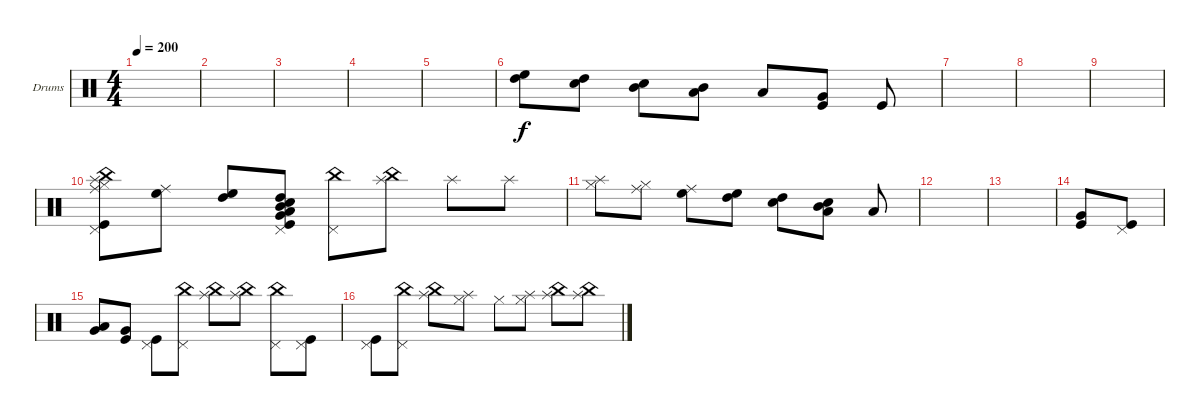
\defaultSystemsLayout 4
\bracketExtendMode groupsimilarinstruments
\firstSystemTrackNameOrientation horizontal
\otherSystemsTrackNameOrientation horizontal
\track ("Drumkit" "Drums") {instrument percussion}
\staff {score}
\articulation defaults
\ts (4 4)
\tempo 200
\clef neutral
\scale
0.333333
\ks c
|
\scale
0.333333 |
\scale
0.333333 |
\scale
0.333333 |
\scale
0.333333 |
\scale
0.333333 ("High Floor Tom (hit)" "High Tom (hit)").8 ("High Tom (hit)" "Snare (hit) 2").8 ("Snare (hit) 2" "Mid Tom (hit)").8 ("Mid Tom (hit)" "Low Tom (hit)").8 "Low Tom (hit)".8 ("Very Low Tom (hit)" "Kick (hit)").8 "Kick (hit)".8 |
\scale
0.333333 |
\scale
0.333333 |
\scale
0.333333 |
\scale
0.333333 ("Kick (hit)" "Pedal Hi-Hat (hit)" "China (hit)" "Splash (hit)" "Hi-Hat (closed)" "Ride (middle)").8 ("Ride (middle)" "High Floor Tom (hit)").8 ("High Floor Tom (hit)" "High Tom (hit)").8 ("High Tom (hit)" "Snare (hit) 2" "Mid Tom (hit)" "Low Tom (hit)" "Very Low Tom (hit)" "Kick (hit)" "Pedal Hi-Hat (hit)").8 ("Pedal Hi-Hat (hit)" "China (hit)").8 ("China (hit)" "Splash (hit)").8 "Splash (hit)".8 "Splash (hit)".8 |
\scale
0.333333 ("Splash (hit)" "Hi-Hat (closed)").8 ("Hi-Hat (closed)" "Ride (middle)").8 ("Ride (middle)" "High Floor Tom (hit)").8 ("High Floor Tom (hit)" "High Tom (hit)").8 ("High Tom (hit)" "Snare (hit) 2").8 ("Snare (hit) 2" "Mid Tom (hit)" "Low Tom (hit)").8 "Low Tom (hit)".8 |
\scale
0.333333 |
|
("Very Low Tom (hit)" "Kick (hit)").8 ("Kick (hit)" "Pedal Hi-Hat (hit)").8 |
("Low Tom (hit)" "Very Low Tom (hit)").8 ("Very Low Tom (hit)" "Kick (hit)").8 ("Kick (hit)" "Pedal Hi-Hat (hit)").8 ("Pedal Hi-Hat (hit)" "China (hit)").8 ("China (hit)" "Splash (hit)").8 ("Splash (hit)" "China (hit)").8 ("China (hit)" "Pedal Hi-Hat (hit)").8 ("Pedal Hi-Hat (hit)" "Kick (hit)").8 |
("Kick (hit)" "Pedal Hi-Hat (hit)").8 ("Pedal Hi-Hat (hit)" "China (hit)").8 ("China (hit)" "Splash (hit)").8 ("Splash (hit)" "Hi-Hat (closed)").8 "Hi-Hat (closed)".8 ("Hi-Hat (closed)" "Splash (hit)").8 ("Splash (hit)" "China (hit)").8 ("China (hit)" "Splash (hit)").8
